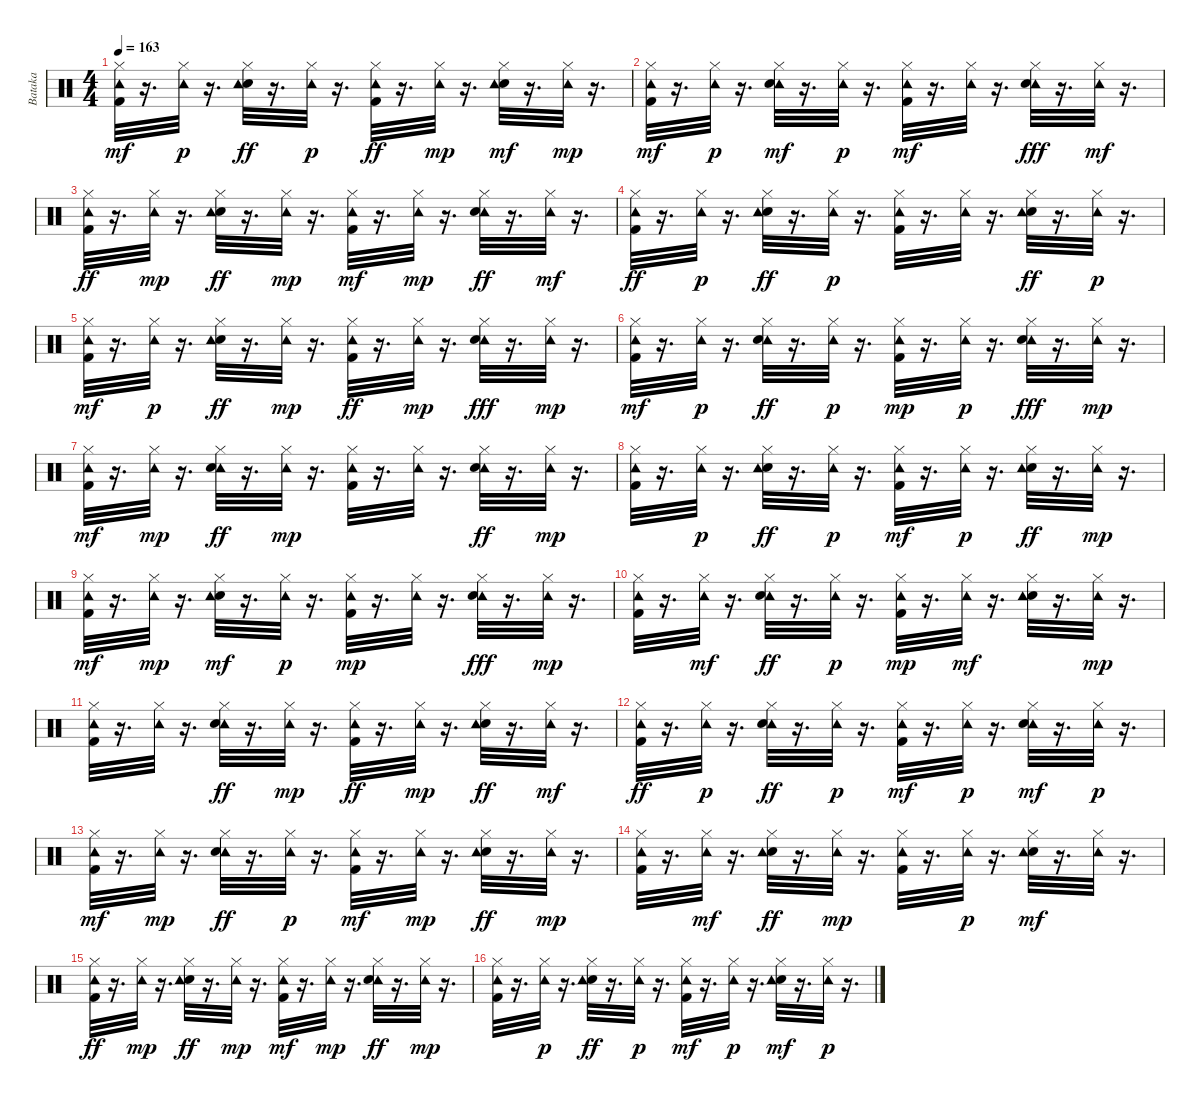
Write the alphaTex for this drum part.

\track ("Bataka" "Bataka") {instrument percussion}
\staff {score}
\articulation defaults
\ts (4 4)
\tempo 163
\clef neutral
\ks c
("Hi-Hat (closed)" "Tambourine (hit)" "Kick (hit) 2").32{dy mf} r.16{d} ("Hi-Hat (closed)" "Tambourine (hit)").32{dy p} r.16{d} ("Electric Snare (hit)" "Hi-Hat (closed)" "Tambourine (hit)").32{dy ff} r.16{d} ("Hi-Hat (closed)" "Tambourine (hit)").32{dy p} r.16{d} ("Tambourine (hit)" "Hi-Hat (closed)" "Kick (hit) 2").32{dy ff} r.16{d} ("Tambourine (hit)" "Hi-Hat (closed)").32{dy mp} r.16{d} ("Electric Snare (hit)" "Tambourine (hit)" "Hi-Hat (closed)").32{dy mf} r.16{d} ("Tambourine (hit)" "Hi-Hat (closed)").32{dy mp} r.16{d} |
("Kick (hit) 2" "Tambourine (hit)" "Hi-Hat (closed)").32{dy mf} r.16{d} ("Tambourine (hit)" "Hi-Hat (closed)").32{dy p} r.16{d} ("Tambourine (hit)" "Electric Snare (hit)" "Hi-Hat (closed)").32{dy mf} r.16{d} ("Tambourine (hit)" "Hi-Hat (closed)").32{dy p} r.16{d} ("Tambourine (hit)" "Hi-Hat (closed)" "Kick (hit) 2").32{dy mf} r.16{d} ("Hi-Hat (closed)" "Tambourine (hit)").32 r.16{d} ("Tambourine (hit)" "Hi-Hat (closed)" "Electric Snare (hit)").32{dy fff} r.16{d} ("Hi-Hat (closed)" "Tambourine (hit)").32{dy mf} r.16{d} |
("Hi-Hat (closed)" "Tambourine (hit)" "Kick (hit) 2").32{dy ff} r.16{d} ("Tambourine (hit)" "Hi-Hat (closed)").32{dy mp} r.16{d} ("Electric Snare (hit)" "Hi-Hat (closed)" "Tambourine (hit)").32{dy ff} r.16{d} ("Tambourine (hit)" "Hi-Hat (closed)").32{dy mp} r.16{d} ("Kick (hit) 2" "Tambourine (hit)" "Hi-Hat (closed)").32{dy mf} r.16{d} ("Tambourine (hit)" "Hi-Hat (closed)").32{dy mp} r.16{d} ("Tambourine (hit)" "Hi-Hat (closed)" "Electric Snare (hit)").32{dy ff} r.16{d} ("Hi-Hat (closed)" "Tambourine (hit)").32{dy mf} r.16{d} |
("Tambourine (hit)" "Kick (hit) 2" "Hi-Hat (closed)").32{dy ff} r.16{d} ("Hi-Hat (closed)" "Tambourine (hit)").32{dy p} r.16{d} ("Electric Snare (hit)" "Hi-Hat (closed)" "Tambourine (hit)").32{dy ff} r.16{d} ("Hi-Hat (closed)" "Tambourine (hit)").32{dy p} r.16{d} ("Hi-Hat (closed)" "Kick (hit) 2" "Tambourine (hit)").32 r.16{d} ("Hi-Hat (closed)" "Tambourine (hit)").32 r.16{d} ("Hi-Hat (closed)" "Electric Snare (hit)" "Tambourine (hit)").32{dy ff} r.16{d} ("Hi-Hat (closed)" "Tambourine (hit)").32{dy p} r.16{d} |
("Tambourine (hit)" "Hi-Hat (closed)" "Kick (hit) 2").32{dy mf} r.16{d} ("Hi-Hat (closed)" "Tambourine (hit)").32{dy p} r.16{d} ("Electric Snare (hit)" "Hi-Hat (closed)" "Tambourine (hit)").32{dy ff} r.16{d} ("Tambourine (hit)" "Hi-Hat (closed)").32{dy mp} r.16{d} ("Hi-Hat (closed)" "Tambourine (hit)" "Kick (hit) 2").32{dy ff} r.16{d} ("Tambourine (hit)" "Hi-Hat (closed)").32{dy mp} r.16{d} ("Tambourine (hit)" "Hi-Hat (closed)" "Electric Snare (hit)").32{dy fff} r.16{d} ("Hi-Hat (closed)" "Tambourine (hit)").32{dy mp} r.16{d} |
("Kick (hit) 2" "Tambourine (hit)" "Hi-Hat (closed)").32{dy mf} r.16{d} ("Tambourine (hit)" "Hi-Hat (closed)").32{dy p} r.16{d} ("Tambourine (hit)" "Hi-Hat (closed)" "Electric Snare (hit)").32{dy ff} r.16{d} ("Tambourine (hit)" "Hi-Hat (closed)").32{dy p} r.16{d} ("Hi-Hat (closed)" "Kick (hit) 2" "Tambourine (hit)").32{dy mp} r.16{d} ("Tambourine (hit)" "Hi-Hat (closed)").32{dy p} r.16{d} ("Hi-Hat (closed)" "Tambourine (hit)" "Electric Snare (hit)").32{dy fff} r.16{d} ("Tambourine (hit)" "Hi-Hat (closed)").32{dy mp} r.16{d} |
("Tambourine (hit)" "Kick (hit) 2" "Hi-Hat (closed)").32{dy mf} r.16{d} ("Tambourine (hit)" "Hi-Hat (closed)").32{dy mp} r.16{d} ("Hi-Hat (closed)" "Tambourine (hit)" "Electric Snare (hit)").32{dy ff} r.16{d} ("Hi-Hat (closed)" "Tambourine (hit)").32{dy mp} r.16{d} ("Hi-Hat (closed)" "Kick (hit) 2" "Tambourine (hit)").32 r.16{d} ("Tambourine (hit)" "Hi-Hat (closed)").32 r.16{d} ("Tambourine (hit)" "Hi-Hat (closed)" "Electric Snare (hit)").32{dy ff} r.16{d} ("Tambourine (hit)" "Hi-Hat (closed)").32{dy mp} r.16{d} |
("Kick (hit) 2" "Tambourine (hit)" "Hi-Hat (closed)").32 r.16{d} ("Hi-Hat (closed)" "Tambourine (hit)").32{dy p} r.16{d} ("Hi-Hat (closed)" "Electric Snare (hit)" "Tambourine (hit)").32{dy ff} r.16{d} ("Tambourine (hit)" "Hi-Hat (closed)").32{dy p} r.16{d} ("Hi-Hat (closed)" "Tambourine (hit)" "Kick (hit) 2").32{dy mf} r.16{d} ("Hi-Hat (closed)" "Tambourine (hit)").32{dy p} r.16{d} ("Hi-Hat (closed)" "Electric Snare (hit)" "Tambourine (hit)").32{dy ff} r.16{d} ("Tambourine (hit)" "Hi-Hat (closed)").32{dy mp} r.16{d} |
("Tambourine (hit)" "Kick (hit) 2" "Hi-Hat (closed)").32{dy mf} r.16{d} ("Tambourine (hit)" "Hi-Hat (closed)").32{dy mp} r.16{d} ("Electric Snare (hit)" "Tambourine (hit)" "Hi-Hat (closed)").32{dy mf} r.16{d} ("Hi-Hat (closed)" "Tambourine (hit)").32{dy p} r.16{d} ("Kick (hit) 2" "Hi-Hat (closed)" "Tambourine (hit)").32{dy mp} r.16{d} ("Hi-Hat (closed)" "Tambourine (hit)").32 r.16{d} ("Tambourine (hit)" "Hi-Hat (closed)" "Electric Snare (hit)").32{dy fff} r.16{d} ("Hi-Hat (closed)" "Tambourine (hit)").32{dy mp} r.16{d} |
("Hi-Hat (closed)" "Kick (hit) 2" "Tambourine (hit)").32 r.16{d} ("Hi-Hat (closed)" "Tambourine (hit)").32{dy mf} r.16{d} ("Tambourine (hit)" "Hi-Hat (closed)" "Electric Snare (hit)").32{dy ff} r.16{d} ("Tambourine (hit)" "Hi-Hat (closed)").32{dy p} r.16{d} ("Kick (hit) 2" "Hi-Hat (closed)" "Tambourine (hit)").32{dy mp} r.16{d} ("Hi-Hat (closed)" "Tambourine (hit)").32{dy mf} r.16{d} ("Electric Snare (hit)" "Tambourine (hit)" "Hi-Hat (closed)").32 r.16{d} ("Tambourine (hit)" "Hi-Hat (closed)").32{dy mp} r.16{d} |
("Kick (hit) 2" "Hi-Hat (closed)" "Tambourine (hit)").32 r.16{d} ("Tambourine (hit)" "Hi-Hat (closed)").32 r.16{d} ("Tambourine (hit)" "Electric Snare (hit)" "Hi-Hat (closed)").32{dy ff} r.16{d} ("Hi-Hat (closed)" "Tambourine (hit)").32{dy mp} r.16{d} ("Tambourine (hit)" "Hi-Hat (closed)" "Kick (hit) 2").32{dy ff} r.16{d} ("Tambourine (hit)" "Hi-Hat (closed)").32{dy mp} r.16{d} ("Electric Snare (hit)" "Hi-Hat (closed)" "Tambourine (hit)").32{dy ff} r.16{d} ("Hi-Hat (closed)" "Tambourine (hit)").32{dy mf} r.16{d} |
("Hi-Hat (closed)" "Tambourine (hit)" "Kick (hit) 2").32{dy ff} r.16{d} ("Tambourine (hit)" "Hi-Hat (closed)").32{dy p} r.16{d} ("Hi-Hat (closed)" "Tambourine (hit)" "Electric Snare (hit)").32{dy ff} r.16{d} ("Hi-Hat (closed)" "Tambourine (hit)").32{dy p} r.16{d} ("Kick (hit) 2" "Tambourine (hit)" "Hi-Hat (closed)").32{dy mf} r.16{d} ("Tambourine (hit)" "Hi-Hat (closed)").32{dy p} r.16{d} ("Tambourine (hit)" "Electric Snare (hit)" "Hi-Hat (closed)").32{dy mf} r.16{d} ("Hi-Hat (closed)" "Tambourine (hit)").32{dy p} r.16{d} |
("Hi-Hat (closed)" "Kick (hit) 2" "Tambourine (hit)").32{dy mf} r.16{d} ("Tambourine (hit)" "Hi-Hat (closed)").32{dy mp} r.16{d} ("Hi-Hat (closed)" "Tambourine (hit)" "Electric Snare (hit)").32{dy ff} r.16{d} ("Hi-Hat (closed)" "Tambourine (hit)").32{dy p} r.16{d} ("Kick (hit) 2" "Tambourine (hit)" "Hi-Hat (closed)").32{dy mf} r.16{d} ("Tambourine (hit)" "Hi-Hat (closed)").32{dy mp} r.16{d} ("Electric Snare (hit)" "Hi-Hat (closed)" "Tambourine (hit)").32{dy ff} r.16{d} ("Tambourine (hit)" "Hi-Hat (closed)").32{dy mp} r.16{d} |
("Kick (hit) 2" "Hi-Hat (closed)" "Tambourine (hit)").32 r.16{d} ("Hi-Hat (closed)" "Tambourine (hit)").32{dy mf} r.16{d} ("Electric Snare (hit)" "Hi-Hat (closed)" "Tambourine (hit)").32{dy ff} r.16{d} ("Hi-Hat (closed)" "Tambourine (hit)").32{dy mp} r.16{d} ("Kick (hit) 2" "Hi-Hat (closed)" "Tambourine (hit)").32 r.16{d} ("Tambourine (hit)" "Hi-Hat (closed)").32{dy p} r.16{d} ("Electric Snare (hit)" "Tambourine (hit)" "Hi-Hat (closed)").32{dy mf} r.16{d} ("Hi-Hat (closed)" "Tambourine (hit)").32 r.16{d} |
("Hi-Hat (closed)" "Tambourine (hit)" "Kick (hit) 2").32{dy ff} r.16{d} ("Tambourine (hit)" "Hi-Hat (closed)").32{dy mp} r.16{d} ("Electric Snare (hit)" "Hi-Hat (closed)" "Tambourine (hit)").32{dy ff} r.16{d} ("Hi-Hat (closed)" "Tambourine (hit)").32{dy mp} r.16{d} ("Kick (hit) 2" "Tambourine (hit)" "Hi-Hat (closed)").32{dy mf} r.16{d} ("Tambourine (hit)" "Hi-Hat (closed)").32{dy mp} r.16{d} ("Tambourine (hit)" "Electric Snare (hit)" "Hi-Hat (closed)").32{dy ff} r.16{d} ("Tambourine (hit)" "Hi-Hat (closed)").32{dy mp} r.16{d} |
("Kick (hit) 2" "Hi-Hat (closed)" "Tambourine (hit)").32 r.16{d} ("Tambourine (hit)" "Hi-Hat (closed)").32{dy p} r.16{d} ("Hi-Hat (closed)" "Electric Snare (hit)" "Tambourine (hit)").32{dy ff} r.16{d} ("Hi-Hat (closed)" "Tambourine (hit)").32{dy p} r.16{d} ("Tambourine (hit)" "Kick (hit) 2" "Hi-Hat (closed)").32{dy mf} r.16{d} ("Tambourine (hit)" "Hi-Hat (closed)").32{dy p} r.16{d} ("Electric Snare (hit)" "Tambourine (hit)" "Hi-Hat (closed)").32{dy mf} r.16{d} ("Hi-Hat (closed)" "Tambourine (hit)").32{dy p} r.16{d}
